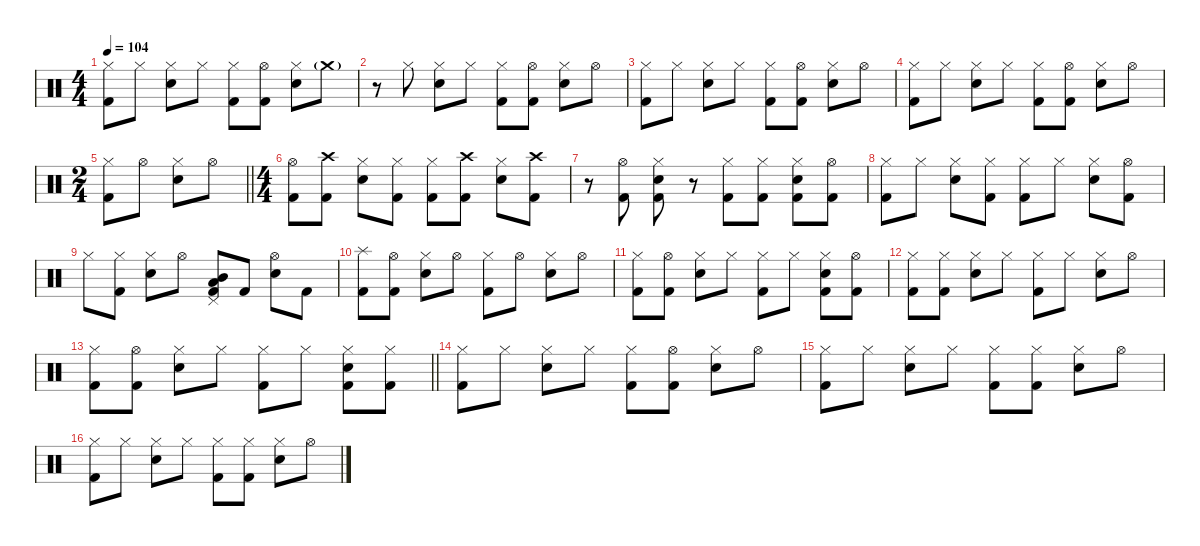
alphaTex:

\defaultSystemsLayout 4
\hideDynamics
\bracketExtendMode nobrackets
\singleTrackTrackNamePolicy hidden
\multiTrackTrackNamePolicy hidden
\firstSystemTrackNameMode fullname
\firstSystemTrackNameOrientation horizontal
\otherSystemsTrackNameOrientation horizontal
\track ("Drums" "drm.") {instrument percussion}
\staff {score}
\articulation defaults
\ts (4 4)
\tempo 104
\clef neutral
\ks c
("Hi-Hat (closed)" "Kick (hit) 2").8{dy f beam Down} "Hi-Hat (closed)".8{beam Down} ("Hi-Hat (closed)" "Snare (hit) 2").8{beam Down} "Hi-Hat (closed)".8{beam Down} ("Hi-Hat (closed)" "Kick (hit) 2").8{beam Down} ("Hi-Hat (open)" "Kick (hit) 2").8{beam Down} ("Hi-Hat (closed)" "Snare (hit) 2").8{beam Down} "Crash medium (hit)"{g}.8{beam Down} |
r.8{beam Down} "Hi-Hat (closed)".8{beam Down} ("Hi-Hat (closed)" "Snare (hit) 2").8{beam Down} "Hi-Hat (closed)".8{beam Down} ("Hi-Hat (closed)" "Kick (hit) 2").8{beam Down} ("Hi-Hat (open)" "Kick (hit) 2").8{beam Down} ("Hi-Hat (closed)" "Snare (hit) 2").8{beam Down} "Hi-Hat (open)".8{beam Down} |
("Hi-Hat (closed)" "Kick (hit) 2").8{beam Down} "Hi-Hat (closed)".8{beam Down} ("Hi-Hat (closed)" "Snare (hit) 2").8{beam Down} "Hi-Hat (closed)".8{beam Down} ("Hi-Hat (closed)" "Kick (hit) 2").8{beam Down} ("Hi-Hat (open)" "Kick (hit) 2").8{beam Down} ("Hi-Hat (closed)" "Snare (hit) 2").8{beam Down} "Hi-Hat (open)".8{beam Down} |
("Hi-Hat (closed)" "Kick (hit) 2").8{beam Down} "Hi-Hat (closed)".8{beam Down} ("Hi-Hat (closed)" "Snare (hit) 2").8{beam Down} "Hi-Hat (closed)".8{beam Down} ("Hi-Hat (closed)" "Kick (hit) 2").8{beam Down} ("Hi-Hat (open)" "Kick (hit) 2").8{beam Down} ("Hi-Hat (closed)" "Snare (hit) 2").8{beam Down} "Hi-Hat (open)".8{beam Down} |
\ts (2 4)
\beaming (8 2 2)
\barLineRight lightlight
("Hi-Hat (closed)" "Kick (hit) 2").8{beam Down} "Hi-Hat (open)".8{beam Down} ("Hi-Hat (closed)" "Snare (hit) 2").8{beam Down} "Hi-Hat (open)".8{beam Down} |
\ts (4 4)
\beaming (8 2 2 2 2)
\section ("" "")
("Hi-Hat (open)" "Kick (hit) 2").8{beam Down} ("Crash high (hit)" "Kick (hit) 2").8{beam Down} ("Hi-Hat (closed)" "Snare (hit) 2").8{beam Down} ("Hi-Hat (closed)" "Kick (hit) 2").8{beam Down} ("Hi-Hat (closed)" "Kick (hit) 2").8{beam Down} ("Crash high (hit)" "Kick (hit) 2").8{beam Down} ("Hi-Hat (closed)" "Snare (hit) 2").8{beam Down} ("Crash high (hit)" "Kick (hit) 2").8{beam Down} |
r.8{beam Down} ("Hi-Hat (open)" "Kick (hit) 2").8{beam Down} ("Hi-Hat (closed)" "Snare (hit) 2" "Kick (hit) 2").8{beam Down} r.8{beam Down} ("Hi-Hat (closed)" "Kick (hit) 2").8{beam Down} ("Hi-Hat (closed)" "Kick (hit) 2").8{beam Down} ("Hi-Hat (closed)" "Snare (hit) 2" "Kick (hit) 2").8{beam Down} ("Hi-Hat (open)" "Kick (hit) 2").8{beam Down} |
("Hi-Hat (closed)" "Kick (hit) 2").8{beam Down} "Hi-Hat (closed)".8{beam Down} ("Hi-Hat (closed)" "Snare (hit) 2").8{beam Down} ("Hi-Hat (closed)" "Kick (hit) 2").8{beam Down} ("Hi-Hat (closed)" "Kick (hit) 2").8{beam Down} "Hi-Hat (closed)".8{beam Down} ("Hi-Hat (closed)" "Snare (hit) 2").8{beam Down} ("Hi-Hat (open)" "Kick (hit) 2").8{beam Down} |
"Hi-Hat (closed)".8{beam Down} ("Hi-Hat (closed)" "Kick (hit) 2").8{beam Down} ("Hi-Hat (closed)" "Snare (hit) 2").8{beam Down} "Hi-Hat (open)".8{beam Down} ("Pedal Hi-Hat (hit)" "Mid Tom (hit)" "Low Tom (hit)" "Kick (hit) 2").8{beam Up} "Kick (hit) 2".8{beam Up} ("Hi-Hat (open)" "Snare (hit) 2").8{beam Down} "Kick (hit) 2".8{beam Down} |
("Splash (hit)" "Kick (hit) 2").8{beam Down} ("Hi-Hat (open)" "Kick (hit) 2").8{beam Down} ("Hi-Hat (closed)" "Snare (hit) 2").8{beam Down} "Hi-Hat (open)".8{beam Down} ("Hi-Hat (closed)" "Kick (hit) 2").8{beam Down} "Hi-Hat (open)".8{beam Down} ("Hi-Hat (closed)" "Snare (hit) 2").8{beam Down} "Hi-Hat (open)".8{beam Down} |
("Hi-Hat (closed)" "Kick (hit) 2").8{beam Down} ("Hi-Hat (open)" "Kick (hit) 2").8{beam Down} ("Hi-Hat (closed)" "Snare (hit) 2").8{beam Down} "Hi-Hat (closed)".8{beam Down} ("Hi-Hat (closed)" "Kick (hit) 2").8{beam Down} "Hi-Hat (closed)".8{beam Down} ("Hi-Hat (closed)" "Snare (hit) 2" "Kick (hit) 2").8{beam Down} ("Hi-Hat (open)" "Kick (hit) 2").8{beam Down} |
("Hi-Hat (closed)" "Kick (hit) 2").8{beam Down} ("Hi-Hat (closed)" "Kick (hit) 2").8{beam Down} ("Hi-Hat (closed)" "Snare (hit) 2").8{beam Down} "Hi-Hat (closed)".8{beam Down} ("Hi-Hat (closed)" "Kick (hit) 2").8{beam Down} "Hi-Hat (closed)".8{beam Down} ("Hi-Hat (closed)" "Snare (hit) 2").8{beam Down} "Hi-Hat (open)".8{beam Down} |
\barLineRight lightlight
("Hi-Hat (closed)" "Kick (hit) 2").8{beam Down} ("Hi-Hat (open)" "Kick (hit) 2").8{beam Down} ("Hi-Hat (closed)" "Snare (hit) 2").8{beam Down} "Hi-Hat (closed)".8{beam Down} ("Hi-Hat (closed)" "Kick (hit) 2").8{beam Down} "Hi-Hat (closed)".8{beam Down} ("Hi-Hat (closed)" "Snare (hit) 2" "Kick (hit) 2").8{beam Down} ("Hi-Hat (closed)" "Kick (hit) 2").8{beam Down} |
\section ("" "")
("Hi-Hat (closed)" "Kick (hit) 2").8{beam Down} "Hi-Hat (closed)".8{beam Down} ("Hi-Hat (closed)" "Snare (hit) 2").8{beam Down} "Hi-Hat (closed)".8{beam Down} ("Hi-Hat (closed)" "Kick (hit) 2").8{beam Down} ("Hi-Hat (open)" "Kick (hit) 2").8{beam Down} ("Hi-Hat (closed)" "Snare (hit) 2").8{beam Down} "Hi-Hat (open)".8{beam Down} |
("Hi-Hat (closed)" "Kick (hit) 2").8{beam Down} "Hi-Hat (closed)".8{beam Down} ("Hi-Hat (closed)" "Snare (hit) 2").8{beam Down} "Hi-Hat (closed)".8{beam Down} ("Hi-Hat (closed)" "Kick (hit) 2").8{beam Down} ("Hi-Hat (closed)" "Kick (hit) 2").8{beam Down} ("Hi-Hat (closed)" "Snare (hit) 2").8{beam Down} "Hi-Hat (open)".8{beam Down} |
("Hi-Hat (closed)" "Kick (hit) 2").8{beam Down} "Hi-Hat (closed)".8{beam Down} ("Hi-Hat (closed)" "Snare (hit) 2").8{beam Down} "Hi-Hat (closed)".8{beam Down} ("Hi-Hat (closed)" "Kick (hit) 2").8{beam Down} ("Hi-Hat (closed)" "Kick (hit) 2").8{beam Down} ("Hi-Hat (closed)" "Snare (hit) 2").8{beam Down} "Hi-Hat (open)".8{beam Down}
